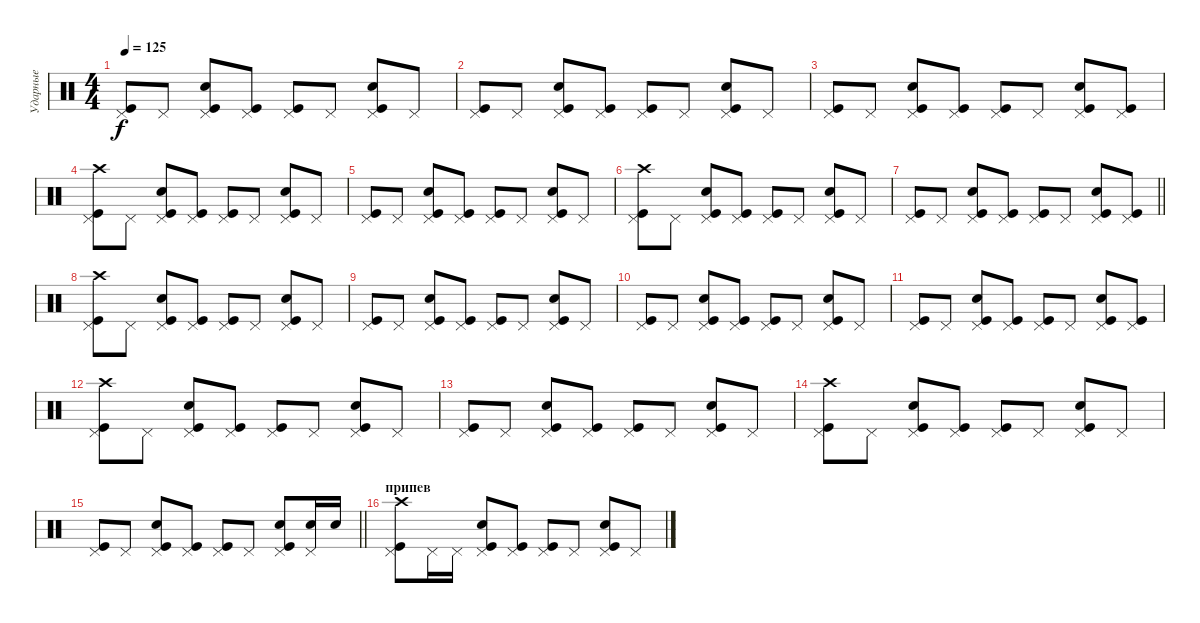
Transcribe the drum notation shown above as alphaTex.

\track ("Ударные" "Ударные") {instrument percussion}
\staff {score}
\articulation defaults
\ts (4 4)
\tempo 125
\clef neutral
\ks c
("Pedal Hi-Hat (hit)" "Kick (hit)").8{dy f} "Pedal Hi-Hat (hit)".8 ("Pedal Hi-Hat (hit)" "Kick (hit)" "Snare (hit) 2").8 ("Pedal Hi-Hat (hit)" "Kick (hit)").8 ("Pedal Hi-Hat (hit)" "Kick (hit)").8 "Pedal Hi-Hat (hit)".8 ("Pedal Hi-Hat (hit)" "Kick (hit)" "Snare (hit) 2").8 "Pedal Hi-Hat (hit)".8 |
("Pedal Hi-Hat (hit)" "Kick (hit)").8 "Pedal Hi-Hat (hit)".8 ("Pedal Hi-Hat (hit)" "Kick (hit)" "Snare (hit) 2").8 ("Pedal Hi-Hat (hit)" "Kick (hit)").8 ("Pedal Hi-Hat (hit)" "Kick (hit)").8 "Pedal Hi-Hat (hit)".8 ("Pedal Hi-Hat (hit)" "Kick (hit)" "Snare (hit) 2").8 "Pedal Hi-Hat (hit)".8 |
("Pedal Hi-Hat (hit)" "Kick (hit)").8 "Pedal Hi-Hat (hit)".8 ("Pedal Hi-Hat (hit)" "Kick (hit)" "Snare (hit) 2").8 ("Pedal Hi-Hat (hit)" "Kick (hit)").8 ("Pedal Hi-Hat (hit)" "Kick (hit)").8 "Pedal Hi-Hat (hit)".8 ("Pedal Hi-Hat (hit)" "Kick (hit)" "Snare (hit) 2").8 ("Pedal Hi-Hat (hit)" "Kick (hit)").8 |
("Pedal Hi-Hat (hit)" "Kick (hit)" "Crash high (hit)").8 "Pedal Hi-Hat (hit)".8 ("Pedal Hi-Hat (hit)" "Kick (hit)" "Snare (hit) 2").8 ("Pedal Hi-Hat (hit)" "Kick (hit)").8 ("Pedal Hi-Hat (hit)" "Kick (hit)").8 "Pedal Hi-Hat (hit)".8 ("Pedal Hi-Hat (hit)" "Kick (hit)" "Snare (hit) 2").8 "Pedal Hi-Hat (hit)".8 |
("Pedal Hi-Hat (hit)" "Kick (hit)").8 "Pedal Hi-Hat (hit)".8 ("Pedal Hi-Hat (hit)" "Kick (hit)" "Snare (hit) 2").8 ("Pedal Hi-Hat (hit)" "Kick (hit)").8 ("Pedal Hi-Hat (hit)" "Kick (hit)").8 "Pedal Hi-Hat (hit)".8 ("Pedal Hi-Hat (hit)" "Kick (hit)" "Snare (hit) 2").8 "Pedal Hi-Hat (hit)".8 |
("Pedal Hi-Hat (hit)" "Kick (hit)" "Crash high (hit)").8 "Pedal Hi-Hat (hit)".8 ("Pedal Hi-Hat (hit)" "Kick (hit)" "Snare (hit) 2").8 ("Pedal Hi-Hat (hit)" "Kick (hit)").8 ("Pedal Hi-Hat (hit)" "Kick (hit)").8 "Pedal Hi-Hat (hit)".8 ("Pedal Hi-Hat (hit)" "Kick (hit)" "Snare (hit) 2").8 "Pedal Hi-Hat (hit)".8 |
\barLineRight lightlight
("Pedal Hi-Hat (hit)" "Kick (hit)").8 "Pedal Hi-Hat (hit)".8 ("Pedal Hi-Hat (hit)" "Kick (hit)" "Snare (hit) 2").8 ("Pedal Hi-Hat (hit)" "Kick (hit)").8 ("Pedal Hi-Hat (hit)" "Kick (hit)").8 "Pedal Hi-Hat (hit)".8 ("Pedal Hi-Hat (hit)" "Kick (hit)" "Snare (hit) 2").8 ("Pedal Hi-Hat (hit)" "Kick (hit)").8 |
("Pedal Hi-Hat (hit)" "Kick (hit)" "Crash high (hit)").8 "Pedal Hi-Hat (hit)".8 ("Pedal Hi-Hat (hit)" "Kick (hit)" "Snare (hit) 2").8 ("Pedal Hi-Hat (hit)" "Kick (hit)").8 ("Pedal Hi-Hat (hit)" "Kick (hit)").8 "Pedal Hi-Hat (hit)".8 ("Pedal Hi-Hat (hit)" "Kick (hit)" "Snare (hit) 2").8 "Pedal Hi-Hat (hit)".8 |
("Pedal Hi-Hat (hit)" "Kick (hit)").8 "Pedal Hi-Hat (hit)".8 ("Pedal Hi-Hat (hit)" "Kick (hit)" "Snare (hit) 2").8 ("Pedal Hi-Hat (hit)" "Kick (hit)").8 ("Pedal Hi-Hat (hit)" "Kick (hit)").8 "Pedal Hi-Hat (hit)".8 ("Pedal Hi-Hat (hit)" "Kick (hit)" "Snare (hit) 2").8 "Pedal Hi-Hat (hit)".8 |
("Pedal Hi-Hat (hit)" "Kick (hit)").8 "Pedal Hi-Hat (hit)".8 ("Pedal Hi-Hat (hit)" "Kick (hit)" "Snare (hit) 2").8 ("Pedal Hi-Hat (hit)" "Kick (hit)").8 ("Pedal Hi-Hat (hit)" "Kick (hit)").8 "Pedal Hi-Hat (hit)".8 ("Pedal Hi-Hat (hit)" "Kick (hit)" "Snare (hit) 2").8 "Pedal Hi-Hat (hit)".8 |
("Pedal Hi-Hat (hit)" "Kick (hit)").8 "Pedal Hi-Hat (hit)".8 ("Pedal Hi-Hat (hit)" "Kick (hit)" "Snare (hit) 2").8 ("Pedal Hi-Hat (hit)" "Kick (hit)").8 ("Pedal Hi-Hat (hit)" "Kick (hit)").8 "Pedal Hi-Hat (hit)".8 ("Pedal Hi-Hat (hit)" "Kick (hit)" "Snare (hit) 2").8 ("Pedal Hi-Hat (hit)" "Kick (hit)").8 |
("Pedal Hi-Hat (hit)" "Kick (hit)" "Crash high (hit)").8 "Pedal Hi-Hat (hit)".8 ("Pedal Hi-Hat (hit)" "Kick (hit)" "Snare (hit) 2").8 ("Pedal Hi-Hat (hit)" "Kick (hit)").8 ("Pedal Hi-Hat (hit)" "Kick (hit)").8 "Pedal Hi-Hat (hit)".8 ("Pedal Hi-Hat (hit)" "Kick (hit)" "Snare (hit) 2").8 "Pedal Hi-Hat (hit)".8 |
("Pedal Hi-Hat (hit)" "Kick (hit)").8 "Pedal Hi-Hat (hit)".8 ("Pedal Hi-Hat (hit)" "Kick (hit)" "Snare (hit) 2").8 ("Pedal Hi-Hat (hit)" "Kick (hit)").8 ("Pedal Hi-Hat (hit)" "Kick (hit)").8 "Pedal Hi-Hat (hit)".8 ("Pedal Hi-Hat (hit)" "Kick (hit)" "Snare (hit) 2").8 "Pedal Hi-Hat (hit)".8 |
("Pedal Hi-Hat (hit)" "Kick (hit)" "Crash high (hit)").8 "Pedal Hi-Hat (hit)".8 ("Pedal Hi-Hat (hit)" "Kick (hit)" "Snare (hit) 2").8 ("Pedal Hi-Hat (hit)" "Kick (hit)").8 ("Pedal Hi-Hat (hit)" "Kick (hit)").8 "Pedal Hi-Hat (hit)".8 ("Pedal Hi-Hat (hit)" "Kick (hit)" "Snare (hit) 2").8 "Pedal Hi-Hat (hit)".8 |
\barLineRight lightlight
("Pedal Hi-Hat (hit)" "Kick (hit)").8 "Pedal Hi-Hat (hit)".8 ("Pedal Hi-Hat (hit)" "Kick (hit)" "Snare (hit) 2").8 ("Pedal Hi-Hat (hit)" "Kick (hit)").8 ("Pedal Hi-Hat (hit)" "Kick (hit)").8 "Pedal Hi-Hat (hit)".8 ("Pedal Hi-Hat (hit)" "Kick (hit)" "Snare (hit) 2").8 ("Pedal Hi-Hat (hit)" "Snare (hit) 2").16 "Snare (hit) 2".16 |
\section ("" "припев")
("Pedal Hi-Hat (hit)" "Kick (hit)" "Crash high (hit)").8 "Pedal Hi-Hat (hit)".16 "Pedal Hi-Hat (hit)".16 ("Pedal Hi-Hat (hit)" "Kick (hit)" "Snare (hit) 2").8 ("Pedal Hi-Hat (hit)" "Kick (hit)").8 ("Pedal Hi-Hat (hit)" "Kick (hit)").8 "Pedal Hi-Hat (hit)".8 ("Pedal Hi-Hat (hit)" "Kick (hit)" "Snare (hit) 2").8 "Pedal Hi-Hat (hit)".8
